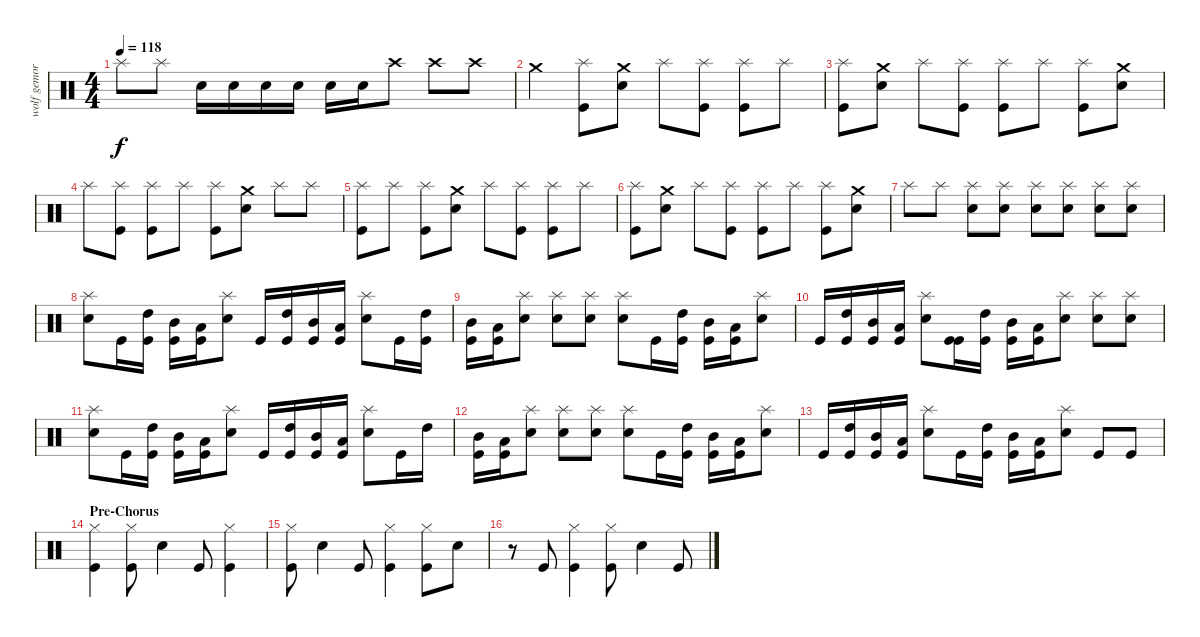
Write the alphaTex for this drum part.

\track ("wolf gemora" "wolf gemor") {instrument percussion}
\staff {score}
\articulation defaults
\ts (4 4)
\tempo 118
\clef neutral
\ks c "Splash (hit)".8{dy f} "Splash (hit)".8 "Electric Snare (hit)".16 "Electric Snare (hit)".16 "Electric Snare (hit)".16 "Electric Snare (hit)".16 "Electric Snare (hit)".16 "Electric Snare (hit)".16 "Crash high (hit)".8 "Crash high (hit)".8 "Crash high (hit)".8
|
"Crash medium (hit)".4 ("Splash (hit)" "Kick (hit)").8 ("Crash medium (hit)" "Electric Snare (hit)").8 "Splash (hit)".8 ("Splash (hit)" "Kick (hit)").8 ("Splash (hit)" "Kick (hit)").8 "Splash (hit)".8 |
("Splash (hit)" "Kick (hit)").8 ("Crash medium (hit)" "Electric Snare (hit)").8 "Splash (hit)".8 ("Splash (hit)" "Kick (hit)").8 ("Splash (hit)" "Kick (hit)").8 "Splash (hit)".8 ("Splash (hit)" "Kick (hit)").8 ("Crash medium (hit)" "Electric Snare (hit)").8 |
"Splash (hit)".8 ("Splash (hit)" "Kick (hit)").8 ("Splash (hit)" "Kick (hit)").8 "Splash (hit)".8 ("Splash (hit)" "Kick (hit)").8 ("Crash medium (hit)" "Electric Snare (hit)").8 "Splash (hit)".8 "Splash (hit)".8 |
("Splash (hit)" "Kick (hit)").8 "Splash (hit)".8 ("Splash (hit)" "Kick (hit)").8 ("Crash medium (hit)" "Electric Snare (hit)").8 "Splash (hit)".8 ("Splash (hit)" "Kick (hit)").8 ("Splash (hit)" "Kick (hit)").8 "Splash (hit)".8 |
("Splash (hit)" "Kick (hit)").8 ("Crash medium (hit)" "Electric Snare (hit)").8 "Splash (hit)".8 ("Splash (hit)" "Kick (hit)").8 ("Splash (hit)" "Kick (hit)").8 "Splash (hit)".8 ("Splash (hit)" "Kick (hit)").8 ("Crash medium (hit)" "Electric Snare (hit)").8 |
"Splash (hit)".8 "Splash (hit)".8 ("Splash (hit)" "Electric Snare (hit)").8 ("Splash (hit)" "Electric Snare (hit)").8 ("Splash (hit)" "Electric Snare (hit)").8 ("Splash (hit)" "Electric Snare (hit)").8 ("Splash (hit)" "Electric Snare (hit)").8 ("Splash (hit)" "Electric Snare (hit)").8 |
("Splash (hit)" "Electric Snare (hit)").8 "Kick (hit)".16 ("High Tom (hit)" "Kick (hit)").16 ("Mid Tom (hit)" "Kick (hit)").16 ("Low Tom (hit)" "Kick (hit)").16 ("Splash (hit)" "Electric Snare (hit)").8 "Kick (hit)".16 ("High Tom (hit)" "Kick (hit)").16 ("Mid Tom (hit)" "Kick (hit)").16 ("Low Tom (hit)" "Kick (hit)").16 ("Splash (hit)" "Electric Snare (hit)").8 "Kick (hit)".16 ("High Tom (hit)" "Kick (hit)").16 |
("Mid Tom (hit)" "Kick (hit)").16 ("Low Tom (hit)" "Kick (hit)").16 ("Splash (hit)" "Electric Snare (hit)").8 ("Splash (hit)" "Electric Snare (hit)").8 ("Splash (hit)" "Electric Snare (hit)").8 ("Splash (hit)" "Electric Snare (hit)").8 "Kick (hit)".16 ("High Tom (hit)" "Kick (hit)").16 ("Mid Tom (hit)" "Kick (hit)").16 ("Low Tom (hit)" "Kick (hit)").16 ("Splash (hit)" "Electric Snare (hit)").8 |
"Kick (hit)".16 ("High Tom (hit)" "Kick (hit)").16 ("Mid Tom (hit)" "Kick (hit)").16 ("Low Tom (hit)" "Kick (hit)").16 ("Splash (hit)" "Electric Snare (hit)").8 ("Kick (hit)" "Kick (hit)").16 ("High Tom (hit)" "Kick (hit)").16 ("Mid Tom (hit)" "Kick (hit)").16 ("Low Tom (hit)" "Kick (hit)").16 ("Splash (hit)" "Electric Snare (hit)").8 ("Splash (hit)" "Electric Snare (hit)").8 ("Splash (hit)" "Electric Snare (hit)").8 |
("Splash (hit)" "Electric Snare (hit)").8 "Kick (hit)".16 ("High Tom (hit)" "Kick (hit)").16 ("Mid Tom (hit)" "Kick (hit)").16 ("Low Tom (hit)" "Kick (hit)").16 ("Splash (hit)" "Electric Snare (hit)").8 "Kick (hit)".16 ("High Tom (hit)" "Kick (hit)").16 ("Mid Tom (hit)" "Kick (hit)").16 ("Low Tom (hit)" "Kick (hit)").16 ("Splash (hit)" "Electric Snare (hit)").8 "Kick (hit)".16 "High Tom (hit)".16 |
("Mid Tom (hit)" "Kick (hit)").16 ("Low Tom (hit)" "Kick (hit)").16 ("Splash (hit)" "Electric Snare (hit)").8 ("Splash (hit)" "Electric Snare (hit)").8 ("Splash (hit)" "Electric Snare (hit)").8 ("Splash (hit)" "Electric Snare (hit)").8 "Kick (hit)".16 ("High Tom (hit)" "Kick (hit)").16 ("Mid Tom (hit)" "Kick (hit)").16 ("Low Tom (hit)" "Kick (hit)").16 ("Splash (hit)" "Electric Snare (hit)").8 |
"Kick (hit)".16 ("High Tom (hit)" "Kick (hit)").16 ("Mid Tom (hit)" "Kick (hit)").16 ("Low Tom (hit)" "Kick (hit)").16 ("Splash (hit)" "Electric Snare (hit)").8 "Kick (hit)".16 ("High Tom (hit)" "Kick (hit)").16 ("Mid Tom (hit)" "Kick (hit)").16 ("Low Tom (hit)" "Kick (hit)").16 ("Splash (hit)" "Electric Snare (hit)").8 "Kick (hit)".8 "Kick (hit)".8 |
\section ("" "Pre-Chorus")
("Kick (hit)" "Hi-Hat (closed)").4 ("Kick (hit)" "Hi-Hat (closed)").8 "Electric Snare (hit)".4 "Kick (hit)".8 ("Kick (hit)" "Hi-Hat (closed)").4 |
("Kick (hit)" "Hi-Hat (closed)").8 "Electric Snare (hit)".4 "Kick (hit)".8 ("Kick (hit)" "Hi-Hat (closed)").4 ("Kick (hit)" "Hi-Hat (closed)").8 "Electric Snare (hit)".8 |
r.8 "Kick (hit)".8 ("Kick (hit)" "Hi-Hat (closed)").4 ("Kick (hit)" "Hi-Hat (closed)").8 "Electric Snare (hit)".4 "Kick (hit)".8
